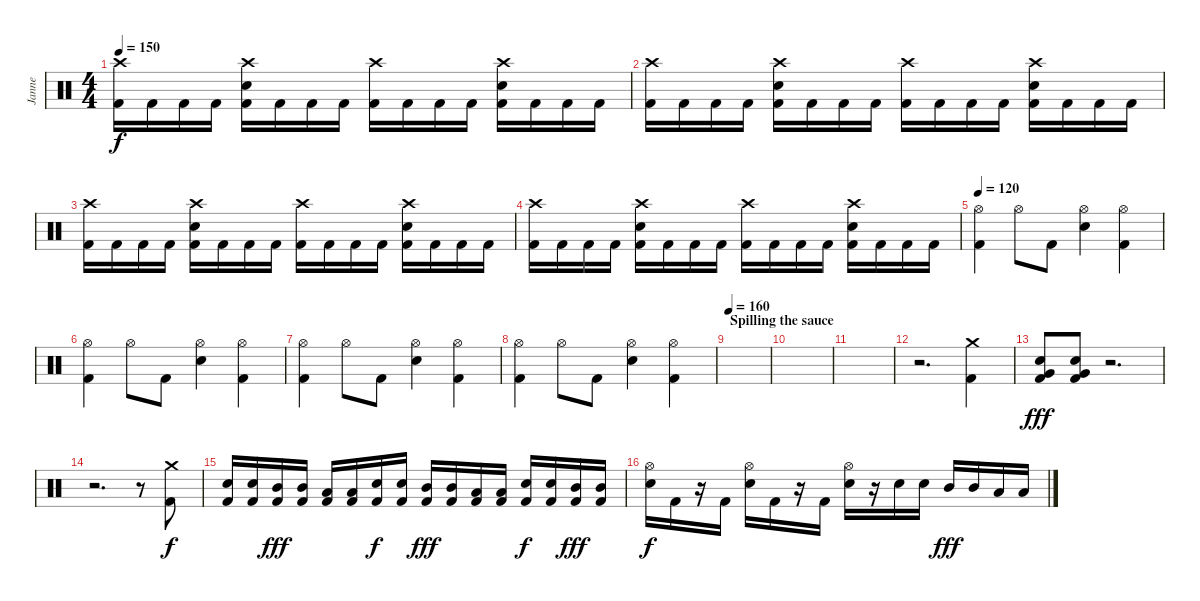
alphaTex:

\track ("Janne" "Janne") {instrument percussion}
\staff {score}
\articulation defaults
\ts (4 4)
\tempo 150
\clef neutral
\ks c
("Crash high (hit)" "Kick (hit) 2").16{dy f} "Kick (hit) 2".16 "Kick (hit) 2".16 "Kick (hit) 2".16 ("Crash high (hit)" "Electric Snare (hit)" "Kick (hit) 2").16 "Kick (hit) 2".16 "Kick (hit) 2".16 "Kick (hit) 2".16 ("Crash high (hit)" "Kick (hit) 2").16 "Kick (hit) 2".16 "Kick (hit) 2".16 "Kick (hit) 2".16 ("Crash high (hit)" "Electric Snare (hit)" "Kick (hit) 2").16 "Kick (hit) 2".16 "Kick (hit) 2".16 "Kick (hit) 2".16 |
("Crash high (hit)" "Kick (hit) 2").16 "Kick (hit) 2".16 "Kick (hit) 2".16 "Kick (hit) 2".16 ("Crash high (hit)" "Electric Snare (hit)" "Kick (hit) 2").16 "Kick (hit) 2".16 "Kick (hit) 2".16 "Kick (hit) 2".16 ("Crash high (hit)" "Kick (hit) 2").16 "Kick (hit) 2".16 "Kick (hit) 2".16 "Kick (hit) 2".16 ("Crash high (hit)" "Electric Snare (hit)" "Kick (hit) 2").16 "Kick (hit) 2".16 "Kick (hit) 2".16 "Kick (hit) 2".16 |
("Crash high (hit)" "Kick (hit) 2").16 "Kick (hit) 2".16 "Kick (hit) 2".16 "Kick (hit) 2".16 ("Crash high (hit)" "Electric Snare (hit)" "Kick (hit) 2").16 "Kick (hit) 2".16 "Kick (hit) 2".16 "Kick (hit) 2".16 ("Crash high (hit)" "Kick (hit) 2").16 "Kick (hit) 2".16 "Kick (hit) 2".16 "Kick (hit) 2".16 ("Crash high (hit)" "Electric Snare (hit)" "Kick (hit) 2").16 "Kick (hit) 2".16 "Kick (hit) 2".16 "Kick (hit) 2".16 |
("Crash high (hit)" "Kick (hit) 2").16 "Kick (hit) 2".16 "Kick (hit) 2".16 "Kick (hit) 2".16 ("Crash high (hit)" "Electric Snare (hit)" "Kick (hit) 2").16 "Kick (hit) 2".16 "Kick (hit) 2".16 "Kick (hit) 2".16 ("Crash high (hit)" "Kick (hit) 2").16 "Kick (hit) 2".16 "Kick (hit) 2".16 "Kick (hit) 2".16 ("Crash high (hit)" "Electric Snare (hit)" "Kick (hit) 2").16 "Kick (hit) 2".16 "Kick (hit) 2".16 "Kick (hit) 2".16 |
\tempo 120
("Hi-Hat (open)" "Kick (hit) 2").4 "Hi-Hat (open)".8 "Kick (hit) 2".8 ("Hi-Hat (open)" "Electric Snare (hit)").4 ("Hi-Hat (open)" "Kick (hit) 2").4 |
("Hi-Hat (open)" "Kick (hit) 2").4 "Hi-Hat (open)".8 "Kick (hit) 2".8 ("Hi-Hat (open)" "Electric Snare (hit)").4 ("Hi-Hat (open)" "Kick (hit) 2").4 |
("Hi-Hat (open)" "Kick (hit) 2").4 "Hi-Hat (open)".8 "Kick (hit) 2".8 ("Hi-Hat (open)" "Electric Snare (hit)").4 ("Hi-Hat (open)" "Kick (hit) 2").4 |
("Hi-Hat (open)" "Kick (hit) 2").4 "Hi-Hat (open)".8 "Kick (hit) 2".8 ("Hi-Hat (open)" "Electric Snare (hit)").4 ("Hi-Hat (open)" "Kick (hit) 2").4 |
\section ("" "Spilling the sauce")
\tempo 160
|
|
|
r.2{d} ("Crash medium (hit)" "Kick (hit) 2").4 |
("Very Low Tom (hit)" "Electric Snare (hit)" "Kick (hit) 2").8{dy fff} ("Very Low Tom (hit)" "Electric Snare (hit)" "Kick (hit) 2").8 r.2{d} |
r.2{d} r.8 ("Crash medium (hit)" "Kick (hit) 2").8{dy f} |
("Electric Snare (hit)" "Kick (hit) 2").16 ("Electric Snare (hit)" "Kick (hit) 2").16 ("Mid Tom (hit)" "Kick (hit) 2").16{dy fff} ("Mid Tom (hit)" "Kick (hit) 2").16 ("Low Tom (hit)" "Kick (hit) 2").16 ("Low Tom (hit)" "Kick (hit) 2").16 ("Electric Snare (hit)" "Kick (hit) 2").16{dy f} ("Electric Snare (hit)" "Kick (hit) 2").16 ("Mid Tom (hit)" "Kick (hit) 2").16{dy fff} ("Mid Tom (hit)" "Kick (hit) 2").16 ("Low Tom (hit)" "Kick (hit) 2").16 ("Low Tom (hit)" "Kick (hit) 2").16 ("Electric Snare (hit)" "Kick (hit) 2").16{dy f} ("Electric Snare (hit)" "Kick (hit) 2").16 ("Mid Tom (hit)" "Kick (hit) 2").16{dy fff} ("Mid Tom (hit)" "Kick (hit) 2").16 |
("Hi-Hat (open)" "Electric Snare (hit)").16{dy f} "Kick (hit) 2".16 r.16 "Kick (hit) 2".16 ("Hi-Hat (open)" "Electric Snare (hit)").16 "Kick (hit) 2".16 r.16 "Kick (hit) 2".16 ("Hi-Hat (open)" "Electric Snare (hit)").16 r.16 "Electric Snare (hit)".16 "Electric Snare (hit)".16 "Mid Tom (hit)".16{dy fff} "Mid Tom (hit)".16 "Low Tom (hit)".16 "Low Tom (hit)".16
